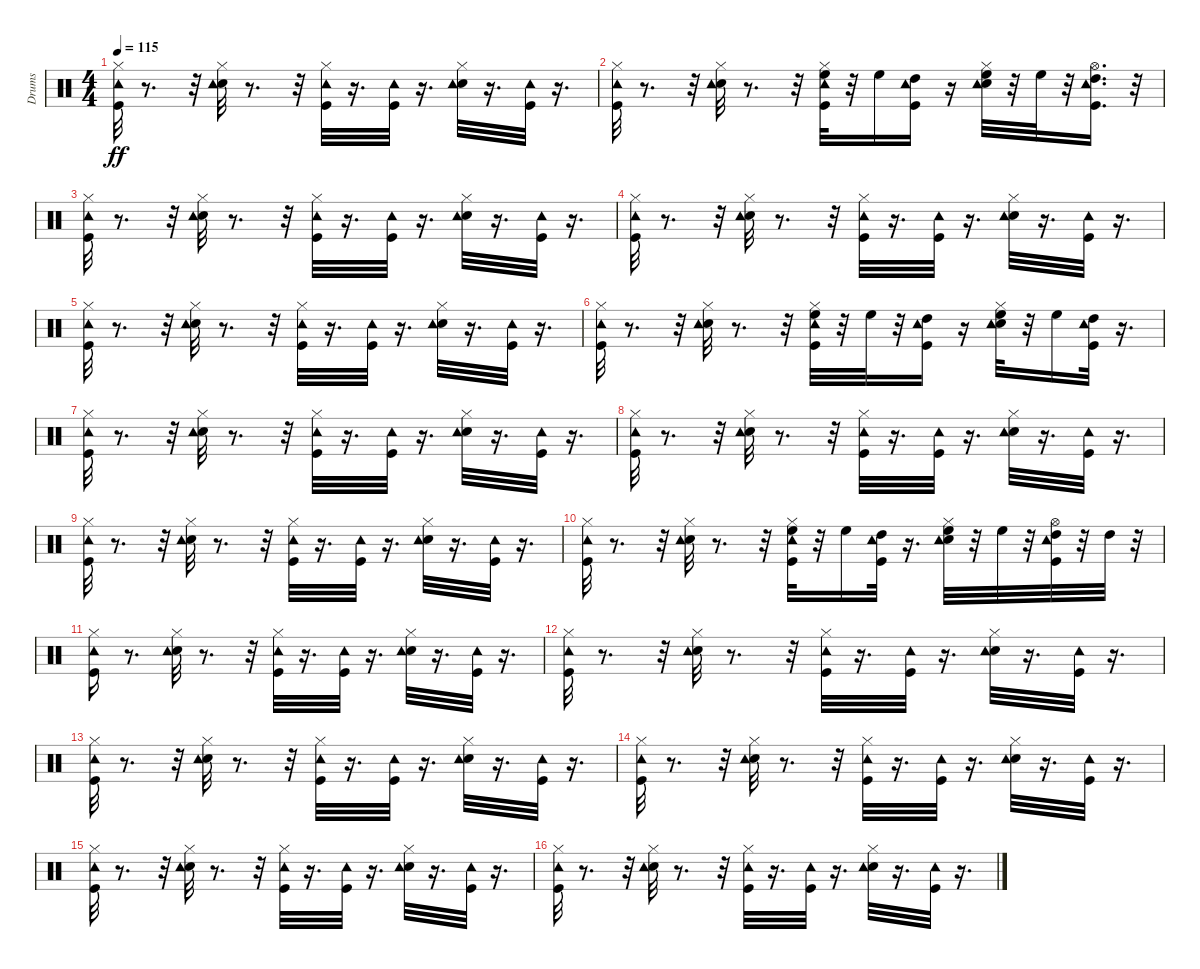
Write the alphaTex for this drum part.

\track ("Drums" "Drums") {instrument percussion}
\staff {score}
\articulation defaults
\ts (4 4)
\tempo 115
\clef neutral
\ks c
("Hi-Hat (closed)" "Kick (hit)" "Tambourine (hit)").32{dy ff} r.8{d} r.32 ("Hi-Hat (closed)" "Snare (hit) 2" "Tambourine (hit)").32 r.8{d} r.32 ("Hi-Hat (closed)" "Kick (hit)" "Tambourine (hit)").32 r.16{d} ("Kick (hit)" "Tambourine (hit)").32 r.16{d} ("Hi-Hat (closed)" "Snare (hit) 2" "Tambourine (hit)").32 r.16{d} ("Kick (hit)" "Tambourine (hit)").32 r.16{d} |
("Hi-Hat (closed)" "Kick (hit)" "Tambourine (hit)").32 r.8{d} r.32 ("Hi-Hat (closed)" "Snare (hit) 2" "Tambourine (hit)").32 r.8{d} r.32 ("High Floor Tom (hit)" "Hi-Hat (closed)" "Kick (hit)" "Tambourine (hit)").32 r.32 "High Floor Tom (hit)".16 ("High Tom (hit)" "Kick (hit)" "Tambourine (hit)").16 r.16 ("High Floor Tom (hit)" "Hi-Hat (closed)" "Snare (hit) 2" "Tambourine (hit)").32 r.32 "High Floor Tom (hit)".32 r.32 ("Kick (hit)" "Hi-Hat (open)" "Tambourine (hit)" "High Tom (hit)").16{d} r.32 |
("Hi-Hat (closed)" "Kick (hit)" "Tambourine (hit)").32 r.8{d} r.32 ("Hi-Hat (closed)" "Snare (hit) 2" "Tambourine (hit)").32 r.8{d} r.32 ("Hi-Hat (closed)" "Kick (hit)" "Tambourine (hit)").32 r.16{d} ("Kick (hit)" "Tambourine (hit)").32 r.16{d} ("Hi-Hat (closed)" "Snare (hit) 2" "Tambourine (hit)").32 r.16{d} ("Kick (hit)" "Tambourine (hit)").32 r.16{d} |
("Hi-Hat (closed)" "Kick (hit)" "Tambourine (hit)").32 r.8{d} r.32 ("Hi-Hat (closed)" "Snare (hit) 2" "Tambourine (hit)").32 r.8{d} r.32 ("Hi-Hat (closed)" "Kick (hit)" "Tambourine (hit)").32 r.16{d} ("Kick (hit)" "Tambourine (hit)").32 r.16{d} ("Hi-Hat (closed)" "Snare (hit) 2" "Tambourine (hit)").32 r.16{d} ("Kick (hit)" "Tambourine (hit)").32 r.16{d} |
("Hi-Hat (closed)" "Kick (hit)" "Tambourine (hit)").32 r.8{d} r.32 ("Hi-Hat (closed)" "Snare (hit) 2" "Tambourine (hit)").32 r.8{d} r.32 ("Hi-Hat (closed)" "Kick (hit)" "Tambourine (hit)").32 r.16{d} ("Kick (hit)" "Tambourine (hit)").32 r.16{d} ("Hi-Hat (closed)" "Snare (hit) 2" "Tambourine (hit)").32 r.16{d} ("Kick (hit)" "Tambourine (hit)").32 r.16{d} |
("Hi-Hat (closed)" "Kick (hit)" "Tambourine (hit)").32 r.8{d} r.32 ("Hi-Hat (closed)" "Snare (hit) 2" "Tambourine (hit)").32 r.8{d} r.32 ("Hi-Hat (closed)" "Kick (hit)" "Tambourine (hit)" "High Floor Tom (hit)").32 r.32 "High Floor Tom (hit)".32 r.32 ("Kick (hit)" "Tambourine (hit)" "High Tom (hit)").16 r.16 ("Hi-Hat (closed)" "Snare (hit) 2" "Tambourine (hit)" "High Floor Tom (hit)").32 r.32 "High Floor Tom (hit)".16 ("Kick (hit)" "Tambourine (hit)" "High Tom (hit)").32 r.16{d} |
("Hi-Hat (closed)" "Kick (hit)" "Tambourine (hit)").32 r.8{d} r.32 ("Hi-Hat (closed)" "Snare (hit) 2" "Tambourine (hit)").32 r.8{d} r.32 ("Hi-Hat (closed)" "Kick (hit)" "Tambourine (hit)").32 r.16{d} ("Kick (hit)" "Tambourine (hit)").32 r.16{d} ("Hi-Hat (closed)" "Snare (hit) 2" "Tambourine (hit)").32 r.16{d} ("Kick (hit)" "Tambourine (hit)").32 r.16{d} |
("Hi-Hat (closed)" "Kick (hit)" "Tambourine (hit)").32 r.8{d} r.32 ("Hi-Hat (closed)" "Snare (hit) 2" "Tambourine (hit)").32 r.8{d} r.32 ("Hi-Hat (closed)" "Kick (hit)" "Tambourine (hit)").32 r.16{d} ("Kick (hit)" "Tambourine (hit)").32 r.16{d} ("Hi-Hat (closed)" "Snare (hit) 2" "Tambourine (hit)").32 r.16{d} ("Kick (hit)" "Tambourine (hit)").32 r.16{d} |
("Hi-Hat (closed)" "Kick (hit)" "Tambourine (hit)").32 r.8{d} r.32 ("Hi-Hat (closed)" "Snare (hit) 2" "Tambourine (hit)").32 r.8{d} r.32 ("Hi-Hat (closed)" "Kick (hit)" "Tambourine (hit)").32 r.16{d} ("Kick (hit)" "Tambourine (hit)").32 r.16{d} ("Hi-Hat (closed)" "Snare (hit) 2" "Tambourine (hit)").32 r.16{d} ("Kick (hit)" "Tambourine (hit)").32 r.16{d} |
("Hi-Hat (closed)" "Kick (hit)" "Tambourine (hit)").32 r.8{d} r.32 ("Hi-Hat (closed)" "Snare (hit) 2" "Tambourine (hit)").32 r.8{d} r.32 ("High Floor Tom (hit)" "Hi-Hat (closed)" "Kick (hit)" "Tambourine (hit)").32 r.32 "High Floor Tom (hit)".16 ("Kick (hit)" "Tambourine (hit)" "High Tom (hit)").32 r.16{d} ("Hi-Hat (closed)" "Snare (hit) 2" "Tambourine (hit)" "High Floor Tom (hit)").32 r.32 "High Floor Tom (hit)".32 r.32 ("Kick (hit)" "Hi-Hat (open)" "Tambourine (hit)" "High Tom (hit)").32 r.32 "High Tom (hit)".32 r.32 |
("Hi-Hat (closed)" "Kick (hit)" "Tambourine (hit)").16 r.8{d} ("Hi-Hat (closed)" "Snare (hit) 2" "Tambourine (hit)").32 r.8{d} r.32 ("Hi-Hat (closed)" "Kick (hit)" "Tambourine (hit)").32 r.16{d} ("Kick (hit)" "Tambourine (hit)").32 r.16{d} ("Hi-Hat (closed)" "Snare (hit) 2" "Tambourine (hit)").32 r.16{d} ("Kick (hit)" "Tambourine (hit)").32 r.16{d} |
("Hi-Hat (closed)" "Kick (hit)" "Tambourine (hit)").32 r.8{d} r.32 ("Hi-Hat (closed)" "Snare (hit) 2" "Tambourine (hit)").32 r.8{d} r.32 ("Hi-Hat (closed)" "Kick (hit)" "Tambourine (hit)").32 r.16{d} ("Kick (hit)" "Tambourine (hit)").32 r.16{d} ("Hi-Hat (closed)" "Snare (hit) 2" "Tambourine (hit)").32 r.16{d} ("Kick (hit)" "Tambourine (hit)").32 r.16{d} |
("Hi-Hat (closed)" "Kick (hit)" "Tambourine (hit)").32 r.8{d} r.32 ("Hi-Hat (closed)" "Snare (hit) 2" "Tambourine (hit)").32 r.8{d} r.32 ("Hi-Hat (closed)" "Kick (hit)" "Tambourine (hit)").32 r.16{d} ("Kick (hit)" "Tambourine (hit)").32 r.16{d} ("Hi-Hat (closed)" "Snare (hit) 2" "Tambourine (hit)").32 r.16{d} ("Kick (hit)" "Tambourine (hit)").32 r.16{d} |
("Hi-Hat (closed)" "Kick (hit)" "Tambourine (hit)").32 r.8{d} r.32 ("Hi-Hat (closed)" "Snare (hit) 2" "Tambourine (hit)").32 r.8{d} r.32 ("Hi-Hat (closed)" "Kick (hit)" "Tambourine (hit)").32 r.16{d} ("Kick (hit)" "Tambourine (hit)").32 r.16{d} ("Hi-Hat (closed)" "Snare (hit) 2" "Tambourine (hit)").32 r.16{d} ("Kick (hit)" "Tambourine (hit)").32 r.16{d} |
("Hi-Hat (closed)" "Kick (hit)" "Tambourine (hit)").32 r.8{d} r.32 ("Hi-Hat (closed)" "Snare (hit) 2" "Tambourine (hit)").32 r.8{d} r.32 ("Hi-Hat (closed)" "Kick (hit)" "Tambourine (hit)").32 r.16{d} ("Kick (hit)" "Tambourine (hit)").32 r.16{d} ("Hi-Hat (closed)" "Snare (hit) 2" "Tambourine (hit)").32 r.16{d} ("Kick (hit)" "Tambourine (hit)").32 r.16{d} |
("Hi-Hat (closed)" "Kick (hit)" "Tambourine (hit)").32 r.8{d} r.32 ("Hi-Hat (closed)" "Snare (hit) 2" "Tambourine (hit)").32 r.8{d} r.32 ("Hi-Hat (closed)" "Kick (hit)" "Tambourine (hit)").32 r.16{d} ("Kick (hit)" "Tambourine (hit)").32 r.16{d} ("Hi-Hat (closed)" "Snare (hit) 2" "Tambourine (hit)").32 r.16{d} ("Kick (hit)" "Tambourine (hit)").32 r.16{d}
